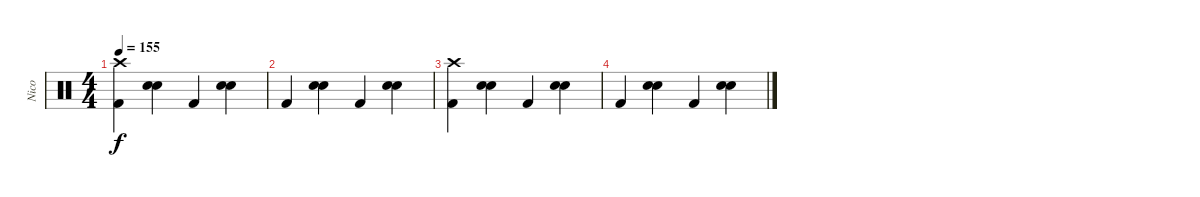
\track ("Nico" "Nico") {instrument percussion}
\staff {score}
\articulation defaults
\ts (4 4)
\tempo 155
\clef neutral
\ks c
("Kick (hit) 2" "Crash high (hit)").4{dy f} ("Electric Snare (hit)" "Electric Snare (hit)").4{bd 240} "Kick (hit) 2".4 ("Electric Snare (hit)" "Electric Snare (hit)").4{bd 240} |
"Kick (hit) 2".4 ("Electric Snare (hit)" "Electric Snare (hit)").4{bd 240} "Kick (hit) 2".4 ("Electric Snare (hit)" "Electric Snare (hit)").4{bd 240} |
("Kick (hit) 2" "Crash high (hit)").4 ("Electric Snare (hit)" "Electric Snare (hit)").4{bd 240} "Kick (hit) 2".4 ("Electric Snare (hit)" "Electric Snare (hit)").4{bd 240} |
"Kick (hit) 2".4 ("Electric Snare (hit)" "Electric Snare (hit)").4{bd 240} "Kick (hit) 2".4 ("Electric Snare (hit)" "Electric Snare (hit)").4{bd 240}
